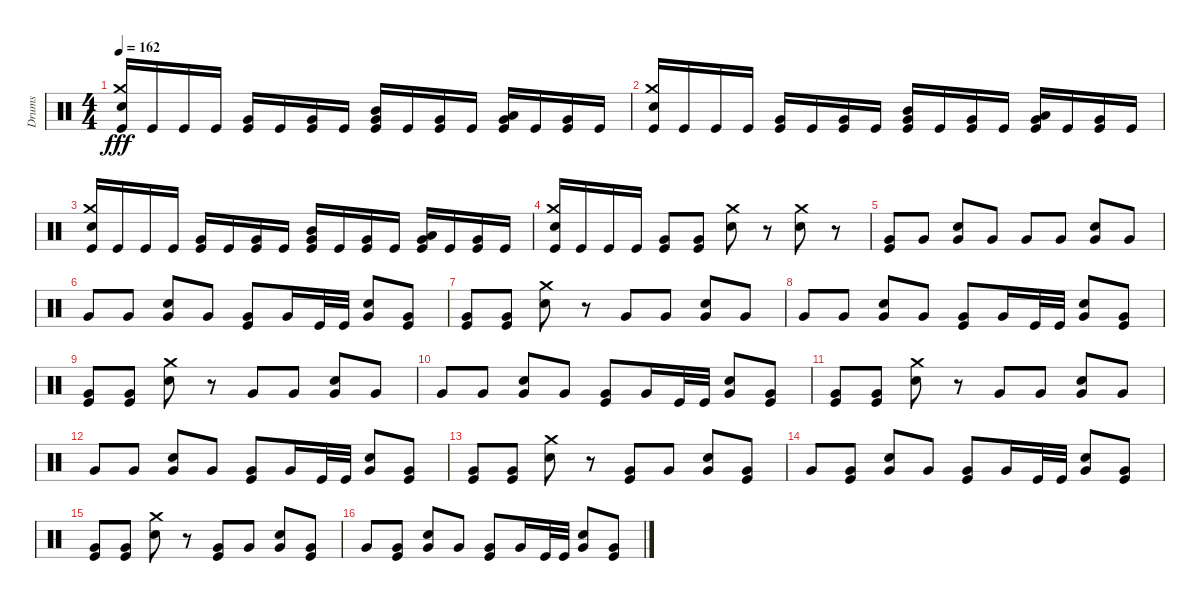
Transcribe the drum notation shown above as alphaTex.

\track ("Drums" "Drums") {instrument percussion}
\staff {score}
\articulation defaults
\ts (4 4)
\tempo 162
\clef neutral
\ks c
("Kick (hit)" "Crash medium (hit)" "Snare (hit) 2").16{dy fff} "Kick (hit)".16 "Kick (hit)".16 "Kick (hit)".16 ("Kick (hit)" "Very Low Tom (hit)").16 "Kick (hit)".16 ("Kick (hit)" "Very Low Tom (hit)").16 "Kick (hit)".16 ("Mid Tom (hit)" "Very Low Tom (hit)" "Kick (hit)").16 "Kick (hit)".16 ("Kick (hit)" "Very Low Tom (hit)").16 "Kick (hit)".16 ("Low Tom (hit)" "Kick (hit)" "Very Low Tom (hit)").16 "Kick (hit)".16 ("Kick (hit)" "Very Low Tom (hit)").16 "Kick (hit)".16 |
("Kick (hit)" "Crash medium (hit)" "Snare (hit) 2").16 "Kick (hit)".16 "Kick (hit)".16 "Kick (hit)".16 ("Kick (hit)" "Very Low Tom (hit)").16 "Kick (hit)".16 ("Kick (hit)" "Very Low Tom (hit)").16 "Kick (hit)".16 ("Mid Tom (hit)" "Very Low Tom (hit)" "Kick (hit)").16 "Kick (hit)".16 ("Very Low Tom (hit)" "Kick (hit)").16 "Kick (hit)".16 ("Low Tom (hit)" "Very Low Tom (hit)" "Kick (hit)").16 "Kick (hit)".16 ("Very Low Tom (hit)" "Kick (hit)").16 "Kick (hit)".16 |
("Kick (hit)" "Crash medium (hit)" "Snare (hit) 2").16 "Kick (hit)".16 "Kick (hit)".16 "Kick (hit)".16 ("Kick (hit)" "Very Low Tom (hit)").16 "Kick (hit)".16 ("Kick (hit)" "Very Low Tom (hit)").16 "Kick (hit)".16 ("Mid Tom (hit)" "Very Low Tom (hit)" "Kick (hit)").16 "Kick (hit)".16 ("Very Low Tom (hit)" "Kick (hit)").16 "Kick (hit)".16 ("Low Tom (hit)" "Very Low Tom (hit)" "Kick (hit)").16 "Kick (hit)".16 ("Very Low Tom (hit)" "Kick (hit)").16 "Kick (hit)".16 |
("Snare (hit) 2" "Crash medium (hit)" "Kick (hit)").16 "Kick (hit)".16 "Kick (hit)".16 "Kick (hit)".16 ("Very Low Tom (hit)" "Kick (hit)").8 ("Very Low Tom (hit)" "Kick (hit)").8 ("Crash medium (hit)" "Snare (hit) 2").8 r.8 ("Snare (hit) 2" "Crash medium (hit)").8 r.8 |
("Very Low Tom (hit)" "Kick (hit)").8 "Very Low Tom (hit)".8 ("Snare (hit) 2" "Very Low Tom (hit)").8 "Very Low Tom (hit)".8 "Very Low Tom (hit)".8 "Very Low Tom (hit)".8 ("Snare (hit) 2" "Very Low Tom (hit)").8 "Very Low Tom (hit)".8 |
"Very Low Tom (hit)".8 "Very Low Tom (hit)".8 ("Snare (hit) 2" "Very Low Tom (hit)").8 "Very Low Tom (hit)".8 ("Kick (hit)" "Very Low Tom (hit)").8 "Very Low Tom (hit)".16 "Kick (hit)".32 "Kick (hit)".32 ("Snare (hit) 2" "Very Low Tom (hit)").8 ("Kick (hit)" "Very Low Tom (hit)").8 |
("Very Low Tom (hit)" "Kick (hit)").8 ("Kick (hit)" "Very Low Tom (hit)").8 ("Crash medium (hit)" "Snare (hit) 2").8 r.8 "Very Low Tom (hit)".8 "Very Low Tom (hit)".8 ("Snare (hit) 2" "Very Low Tom (hit)").8 "Very Low Tom (hit)".8 |
"Very Low Tom (hit)".8 "Very Low Tom (hit)".8 ("Snare (hit) 2" "Very Low Tom (hit)").8 "Very Low Tom (hit)".8 ("Kick (hit)" "Very Low Tom (hit)").8 "Very Low Tom (hit)".16 "Kick (hit)".32 "Kick (hit)".32 ("Snare (hit) 2" "Very Low Tom (hit)").8 ("Kick (hit)" "Very Low Tom (hit)").8 |
("Very Low Tom (hit)" "Kick (hit)").8 ("Kick (hit)" "Very Low Tom (hit)").8 ("Crash medium (hit)" "Snare (hit) 2").8 r.8 "Very Low Tom (hit)".8 "Very Low Tom (hit)".8 ("Snare (hit) 2" "Very Low Tom (hit)").8 "Very Low Tom (hit)".8 |
"Very Low Tom (hit)".8 "Very Low Tom (hit)".8 ("Snare (hit) 2" "Very Low Tom (hit)").8 "Very Low Tom (hit)".8 ("Kick (hit)" "Very Low Tom (hit)").8 "Very Low Tom (hit)".16 "Kick (hit)".32 "Kick (hit)".32 ("Snare (hit) 2" "Very Low Tom (hit)").8 ("Kick (hit)" "Very Low Tom (hit)").8 |
("Very Low Tom (hit)" "Kick (hit)").8 ("Kick (hit)" "Very Low Tom (hit)").8 ("Crash medium (hit)" "Snare (hit) 2").8 r.8 "Very Low Tom (hit)".8 "Very Low Tom (hit)".8 ("Snare (hit) 2" "Very Low Tom (hit)").8 "Very Low Tom (hit)".8 |
"Very Low Tom (hit)".8 "Very Low Tom (hit)".8 ("Snare (hit) 2" "Very Low Tom (hit)").8 "Very Low Tom (hit)".8 ("Kick (hit)" "Very Low Tom (hit)").8 "Very Low Tom (hit)".16 "Kick (hit)".32 "Kick (hit)".32 ("Snare (hit) 2" "Very Low Tom (hit)").8 ("Kick (hit)" "Very Low Tom (hit)").8 |
("Very Low Tom (hit)" "Kick (hit)").8 ("Kick (hit)" "Very Low Tom (hit)").8 ("Crash medium (hit)" "Snare (hit) 2").8 r.8 ("Kick (hit)" "Very Low Tom (hit)").8 "Very Low Tom (hit)".8 ("Snare (hit) 2" "Very Low Tom (hit)").8 ("Kick (hit)" "Very Low Tom (hit)").8 |
"Very Low Tom (hit)".8 ("Kick (hit)" "Very Low Tom (hit)").8 ("Snare (hit) 2" "Very Low Tom (hit)").8 "Very Low Tom (hit)".8 ("Kick (hit)" "Very Low Tom (hit)").8 "Very Low Tom (hit)".16 "Kick (hit)".32 "Kick (hit)".32 ("Snare (hit) 2" "Very Low Tom (hit)").8 ("Kick (hit)" "Very Low Tom (hit)").8 |
("Very Low Tom (hit)" "Kick (hit)").8 ("Kick (hit)" "Very Low Tom (hit)").8 ("Crash medium (hit)" "Snare (hit) 2").8 r.8 ("Kick (hit)" "Very Low Tom (hit)").8 "Very Low Tom (hit)".8 ("Snare (hit) 2" "Very Low Tom (hit)").8 ("Kick (hit)" "Very Low Tom (hit)").8 |
"Very Low Tom (hit)".8 ("Kick (hit)" "Very Low Tom (hit)").8 ("Snare (hit) 2" "Very Low Tom (hit)").8 "Very Low Tom (hit)".8 ("Kick (hit)" "Very Low Tom (hit)").8 "Very Low Tom (hit)".16 "Kick (hit)".32 "Kick (hit)".32 ("Snare (hit) 2" "Very Low Tom (hit)").8 ("Kick (hit)" "Very Low Tom (hit)").8
